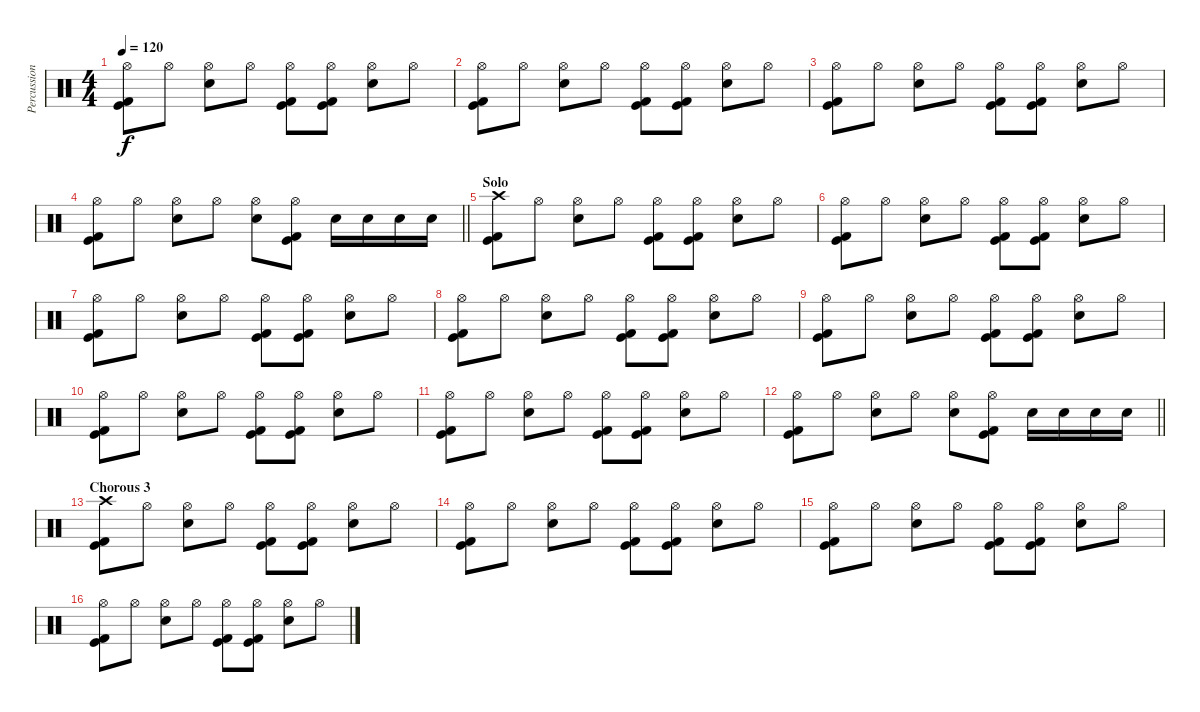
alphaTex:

\track ("Percussion" "Percussion") {instrument percussion}
\staff {score}
\articulation defaults
\ts (4 4)
\tempo 120
\clef neutral
\ks c
("Hi-Hat (open)" "Kick (hit)" "Kick (hit) 2").8{dy f} "Hi-Hat (open)".8 ("Hi-Hat (open)" "Electric Snare (hit)").8 "Hi-Hat (open)".8 ("Hi-Hat (open)" "Kick (hit)" "Kick (hit) 2").8 ("Hi-Hat (open)" "Kick (hit)" "Kick (hit) 2").8 ("Hi-Hat (open)" "Electric Snare (hit)").8 "Hi-Hat (open)".8 |
("Hi-Hat (open)" "Kick (hit)" "Kick (hit) 2").8 "Hi-Hat (open)".8 ("Hi-Hat (open)" "Electric Snare (hit)").8 "Hi-Hat (open)".8 ("Hi-Hat (open)" "Kick (hit)" "Kick (hit) 2").8 ("Hi-Hat (open)" "Kick (hit)" "Kick (hit) 2").8 ("Hi-Hat (open)" "Electric Snare (hit)").8 "Hi-Hat (open)".8 |
("Hi-Hat (open)" "Kick (hit)" "Kick (hit) 2").8 "Hi-Hat (open)".8 ("Hi-Hat (open)" "Electric Snare (hit)").8 "Hi-Hat (open)".8 ("Hi-Hat (open)" "Kick (hit)" "Kick (hit) 2").8 ("Hi-Hat (open)" "Kick (hit)" "Kick (hit) 2").8 ("Hi-Hat (open)" "Electric Snare (hit)").8 "Hi-Hat (open)".8 |
\barLineRight lightlight
("Hi-Hat (open)" "Kick (hit)" "Kick (hit) 2").8 "Hi-Hat (open)".8 ("Hi-Hat (open)" "Electric Snare (hit)").8 "Hi-Hat (open)".8 ("Hi-Hat (open)" "Electric Snare (hit)").8 ("Hi-Hat (open)" "Kick (hit)" "Kick (hit) 2").8 "Electric Snare (hit)".16 "Electric Snare (hit)".16 "Electric Snare (hit)".16 "Electric Snare (hit)".16 |
\section ("" "Solo")
("Crash high (hit)" "Kick (hit)" "Kick (hit) 2").8 "Hi-Hat (open)".8 ("Hi-Hat (open)" "Electric Snare (hit)").8 "Hi-Hat (open)".8 ("Hi-Hat (open)" "Kick (hit)" "Kick (hit) 2").8 ("Hi-Hat (open)" "Kick (hit)" "Kick (hit) 2").8 ("Hi-Hat (open)" "Electric Snare (hit)").8 "Hi-Hat (open)".8 |
("Hi-Hat (open)" "Kick (hit)" "Kick (hit) 2").8 "Hi-Hat (open)".8 ("Hi-Hat (open)" "Electric Snare (hit)").8 "Hi-Hat (open)".8 ("Hi-Hat (open)" "Kick (hit)" "Kick (hit) 2").8 ("Hi-Hat (open)" "Kick (hit)" "Kick (hit) 2").8 ("Hi-Hat (open)" "Electric Snare (hit)").8 "Hi-Hat (open)".8 |
("Hi-Hat (open)" "Kick (hit)" "Kick (hit) 2").8 "Hi-Hat (open)".8 ("Hi-Hat (open)" "Electric Snare (hit)").8 "Hi-Hat (open)".8 ("Hi-Hat (open)" "Kick (hit)" "Kick (hit) 2").8 ("Hi-Hat (open)" "Kick (hit)" "Kick (hit) 2").8 ("Hi-Hat (open)" "Electric Snare (hit)").8 "Hi-Hat (open)".8 |
("Hi-Hat (open)" "Kick (hit)" "Kick (hit) 2").8 "Hi-Hat (open)".8 ("Hi-Hat (open)" "Electric Snare (hit)").8 "Hi-Hat (open)".8 ("Hi-Hat (open)" "Kick (hit)" "Kick (hit) 2").8 ("Hi-Hat (open)" "Kick (hit)" "Kick (hit) 2").8 ("Hi-Hat (open)" "Electric Snare (hit)").8 "Hi-Hat (open)".8 |
("Hi-Hat (open)" "Kick (hit)" "Kick (hit) 2").8 "Hi-Hat (open)".8 ("Hi-Hat (open)" "Electric Snare (hit)").8 "Hi-Hat (open)".8 ("Hi-Hat (open)" "Kick (hit)" "Kick (hit) 2").8 ("Hi-Hat (open)" "Kick (hit)" "Kick (hit) 2").8 ("Hi-Hat (open)" "Electric Snare (hit)").8 "Hi-Hat (open)".8 |
("Hi-Hat (open)" "Kick (hit)" "Kick (hit) 2").8 "Hi-Hat (open)".8 ("Hi-Hat (open)" "Electric Snare (hit)").8 "Hi-Hat (open)".8 ("Hi-Hat (open)" "Kick (hit)" "Kick (hit) 2").8 ("Hi-Hat (open)" "Kick (hit)" "Kick (hit) 2").8 ("Hi-Hat (open)" "Electric Snare (hit)").8 "Hi-Hat (open)".8 |
("Hi-Hat (open)" "Kick (hit)" "Kick (hit) 2").8 "Hi-Hat (open)".8 ("Hi-Hat (open)" "Electric Snare (hit)").8 "Hi-Hat (open)".8 ("Hi-Hat (open)" "Kick (hit)" "Kick (hit) 2").8 ("Hi-Hat (open)" "Kick (hit)" "Kick (hit) 2").8 ("Hi-Hat (open)" "Electric Snare (hit)").8 "Hi-Hat (open)".8 |
\barLineRight lightlight
("Hi-Hat (open)" "Kick (hit)" "Kick (hit) 2").8 "Hi-Hat (open)".8 ("Hi-Hat (open)" "Electric Snare (hit)").8 "Hi-Hat (open)".8 ("Hi-Hat (open)" "Electric Snare (hit)").8 ("Hi-Hat (open)" "Kick (hit)" "Kick (hit) 2").8 "Electric Snare (hit)".16 "Electric Snare (hit)".16 "Electric Snare (hit)".16 "Electric Snare (hit)".16 |
\section ("" "Chorous 3")
("Crash high (hit)" "Kick (hit)" "Kick (hit) 2").8 "Hi-Hat (open)".8 ("Hi-Hat (open)" "Electric Snare (hit)").8 "Hi-Hat (open)".8 ("Hi-Hat (open)" "Kick (hit)" "Kick (hit) 2").8 ("Hi-Hat (open)" "Kick (hit)" "Kick (hit) 2").8 ("Hi-Hat (open)" "Electric Snare (hit)").8 "Hi-Hat (open)".8 |
("Hi-Hat (open)" "Kick (hit)" "Kick (hit) 2").8 "Hi-Hat (open)".8 ("Hi-Hat (open)" "Electric Snare (hit)").8 "Hi-Hat (open)".8 ("Hi-Hat (open)" "Kick (hit)" "Kick (hit) 2").8 ("Hi-Hat (open)" "Kick (hit)" "Kick (hit) 2").8 ("Hi-Hat (open)" "Electric Snare (hit)").8 "Hi-Hat (open)".8 |
("Hi-Hat (open)" "Kick (hit)" "Kick (hit) 2").8 "Hi-Hat (open)".8 ("Hi-Hat (open)" "Electric Snare (hit)").8 "Hi-Hat (open)".8 ("Hi-Hat (open)" "Kick (hit)" "Kick (hit) 2").8 ("Hi-Hat (open)" "Kick (hit)" "Kick (hit) 2").8 ("Hi-Hat (open)" "Electric Snare (hit)").8 "Hi-Hat (open)".8 |
("Hi-Hat (open)" "Kick (hit)" "Kick (hit) 2").8 "Hi-Hat (open)".8 ("Hi-Hat (open)" "Electric Snare (hit)").8 "Hi-Hat (open)".8 ("Hi-Hat (open)" "Kick (hit)" "Kick (hit) 2").8 ("Hi-Hat (open)" "Kick (hit)" "Kick (hit) 2").8 ("Hi-Hat (open)" "Electric Snare (hit)").8 "Hi-Hat (open)".8
